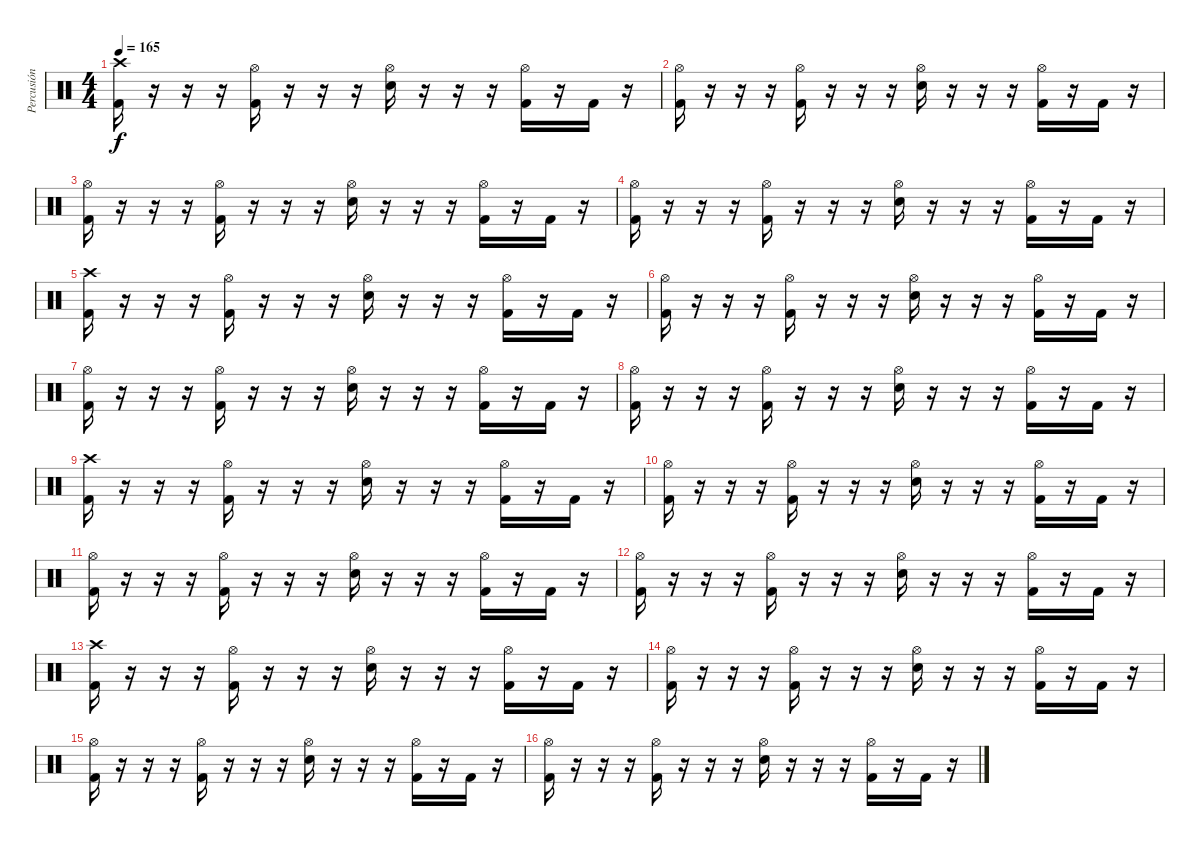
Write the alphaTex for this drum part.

\track ("Percusión" "Percusión") {instrument percussion}
\staff {score}
\articulation defaults
\ts (4 4)
\tempo 165
\clef neutral
\ks c
("Crash high (hit)" "Kick (hit) 2").16{dy f} r.16 r.16 r.16 ("Hi-Hat (open)" "Kick (hit) 2").16 r.16 r.16 r.16 ("Hi-Hat (open)" "Electric Snare (hit)").16 r.16 r.16 r.16 ("Hi-Hat (open)" "Kick (hit) 2").16 r.16 "Kick (hit) 2".16 r.16 |
("Hi-Hat (open)" "Kick (hit) 2").16 r.16 r.16 r.16 ("Hi-Hat (open)" "Kick (hit) 2").16 r.16 r.16 r.16 ("Hi-Hat (open)" "Electric Snare (hit)").16 r.16 r.16 r.16 ("Hi-Hat (open)" "Kick (hit) 2").16 r.16 "Kick (hit) 2".16 r.16 |
("Hi-Hat (open)" "Kick (hit) 2").16 r.16 r.16 r.16 ("Hi-Hat (open)" "Kick (hit) 2").16 r.16 r.16 r.16 ("Hi-Hat (open)" "Electric Snare (hit)").16 r.16 r.16 r.16 ("Hi-Hat (open)" "Kick (hit) 2").16 r.16 "Kick (hit) 2".16 r.16 |
("Hi-Hat (open)" "Kick (hit) 2").16 r.16 r.16 r.16 ("Hi-Hat (open)" "Kick (hit) 2").16 r.16 r.16 r.16 ("Hi-Hat (open)" "Electric Snare (hit)").16 r.16 r.16 r.16 ("Hi-Hat (open)" "Kick (hit) 2").16 r.16 "Kick (hit) 2".16 r.16 |
("Crash high (hit)" "Kick (hit) 2").16 r.16 r.16 r.16 ("Hi-Hat (open)" "Kick (hit) 2").16 r.16 r.16 r.16 ("Hi-Hat (open)" "Electric Snare (hit)").16 r.16 r.16 r.16 ("Hi-Hat (open)" "Kick (hit) 2").16 r.16 "Kick (hit) 2".16 r.16 |
("Hi-Hat (open)" "Kick (hit) 2").16 r.16 r.16 r.16 ("Hi-Hat (open)" "Kick (hit) 2").16 r.16 r.16 r.16 ("Hi-Hat (open)" "Electric Snare (hit)").16 r.16 r.16 r.16 ("Hi-Hat (open)" "Kick (hit) 2").16 r.16 "Kick (hit) 2".16 r.16 |
("Hi-Hat (open)" "Kick (hit) 2").16 r.16 r.16 r.16 ("Hi-Hat (open)" "Kick (hit) 2").16 r.16 r.16 r.16 ("Hi-Hat (open)" "Electric Snare (hit)").16 r.16 r.16 r.16 ("Hi-Hat (open)" "Kick (hit) 2").16 r.16 "Kick (hit) 2".16 r.16 |
("Hi-Hat (open)" "Kick (hit) 2").16 r.16 r.16 r.16 ("Hi-Hat (open)" "Kick (hit) 2").16 r.16 r.16 r.16 ("Hi-Hat (open)" "Electric Snare (hit)").16 r.16 r.16 r.16 ("Hi-Hat (open)" "Kick (hit) 2").16 r.16 "Kick (hit) 2".16 r.16 |
("Crash high (hit)" "Kick (hit) 2").16 r.16 r.16 r.16 ("Hi-Hat (open)" "Kick (hit) 2").16 r.16 r.16 r.16 ("Hi-Hat (open)" "Electric Snare (hit)").16 r.16 r.16 r.16 ("Hi-Hat (open)" "Kick (hit) 2").16 r.16 "Kick (hit) 2".16 r.16 |
("Hi-Hat (open)" "Kick (hit) 2").16 r.16 r.16 r.16 ("Hi-Hat (open)" "Kick (hit) 2").16 r.16 r.16 r.16 ("Hi-Hat (open)" "Electric Snare (hit)").16 r.16 r.16 r.16 ("Hi-Hat (open)" "Kick (hit) 2").16 r.16 "Kick (hit) 2".16 r.16 |
("Hi-Hat (open)" "Kick (hit) 2").16 r.16 r.16 r.16 ("Hi-Hat (open)" "Kick (hit) 2").16 r.16 r.16 r.16 ("Hi-Hat (open)" "Electric Snare (hit)").16 r.16 r.16 r.16 ("Hi-Hat (open)" "Kick (hit) 2").16 r.16 "Kick (hit) 2".16 r.16 |
("Hi-Hat (open)" "Kick (hit) 2").16 r.16 r.16 r.16 ("Hi-Hat (open)" "Kick (hit) 2").16 r.16 r.16 r.16 ("Hi-Hat (open)" "Electric Snare (hit)").16 r.16 r.16 r.16 ("Hi-Hat (open)" "Kick (hit) 2").16 r.16 "Kick (hit) 2".16 r.16 |
("Crash high (hit)" "Kick (hit) 2").16 r.16 r.16 r.16 ("Hi-Hat (open)" "Kick (hit) 2").16 r.16 r.16 r.16 ("Hi-Hat (open)" "Electric Snare (hit)").16 r.16 r.16 r.16 ("Hi-Hat (open)" "Kick (hit) 2").16 r.16 "Kick (hit) 2".16 r.16 |
("Hi-Hat (open)" "Kick (hit) 2").16 r.16 r.16 r.16 ("Hi-Hat (open)" "Kick (hit) 2").16 r.16 r.16 r.16 ("Hi-Hat (open)" "Electric Snare (hit)").16 r.16 r.16 r.16 ("Hi-Hat (open)" "Kick (hit) 2").16 r.16 "Kick (hit) 2".16 r.16 |
("Hi-Hat (open)" "Kick (hit) 2").16 r.16 r.16 r.16 ("Hi-Hat (open)" "Kick (hit) 2").16 r.16 r.16 r.16 ("Hi-Hat (open)" "Electric Snare (hit)").16 r.16 r.16 r.16 ("Hi-Hat (open)" "Kick (hit) 2").16 r.16 "Kick (hit) 2".16 r.16 |
("Hi-Hat (open)" "Kick (hit) 2").16 r.16 r.16 r.16 ("Hi-Hat (open)" "Kick (hit) 2").16 r.16 r.16 r.16 ("Hi-Hat (open)" "Electric Snare (hit)").16 r.16 r.16 r.16 ("Hi-Hat (open)" "Kick (hit) 2").16 r.16 "Kick (hit) 2".16 r.16
